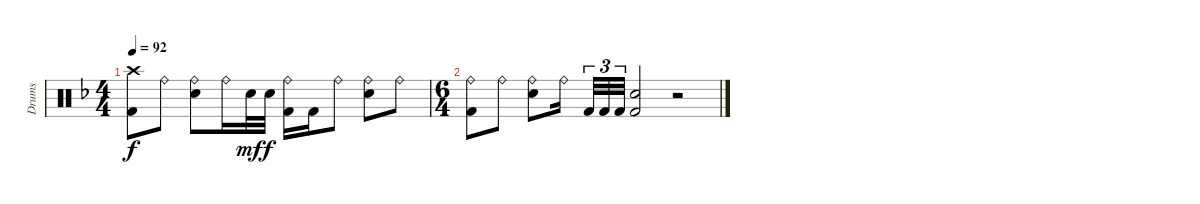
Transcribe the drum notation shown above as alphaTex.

\track ("Drums" "Drums") {instrument percussion}
\staff {score}
\articulation defaults
\ts (4 4)
\tempo 92
\clef neutral
\ks f
("Crash high (hit)" "Kick (hit) 2").8{dy f} "Ride (bell)".8 ("Ride (bell)" "Snare (hit) 2").8 "Ride (bell)".16 "Snare (hit) 2".32{dy mf} "Snare (hit) 2".32{dy f} ("Ride (bell)" "Kick (hit) 2").16 "Kick (hit) 2".16 "Ride (bell)".8 ("Ride (bell)" "Snare (hit) 2").8 "Ride (bell)".8 |
\ts (6 4)
("Ride (bell)" "Kick (hit) 2").8 "Ride (bell)".8 ("Ride (bell)" "Snare (hit) 2").8 "Ride (bell)".16{beam splitsecondary} "Kick (hit) 2".32{tu (3 2)} "Kick (hit) 2".32{tu (3 2)} "Kick (hit) 2".32{tu (3 2)} ("Snare (hit) 2" "Kick (hit) 2").2 r.2
